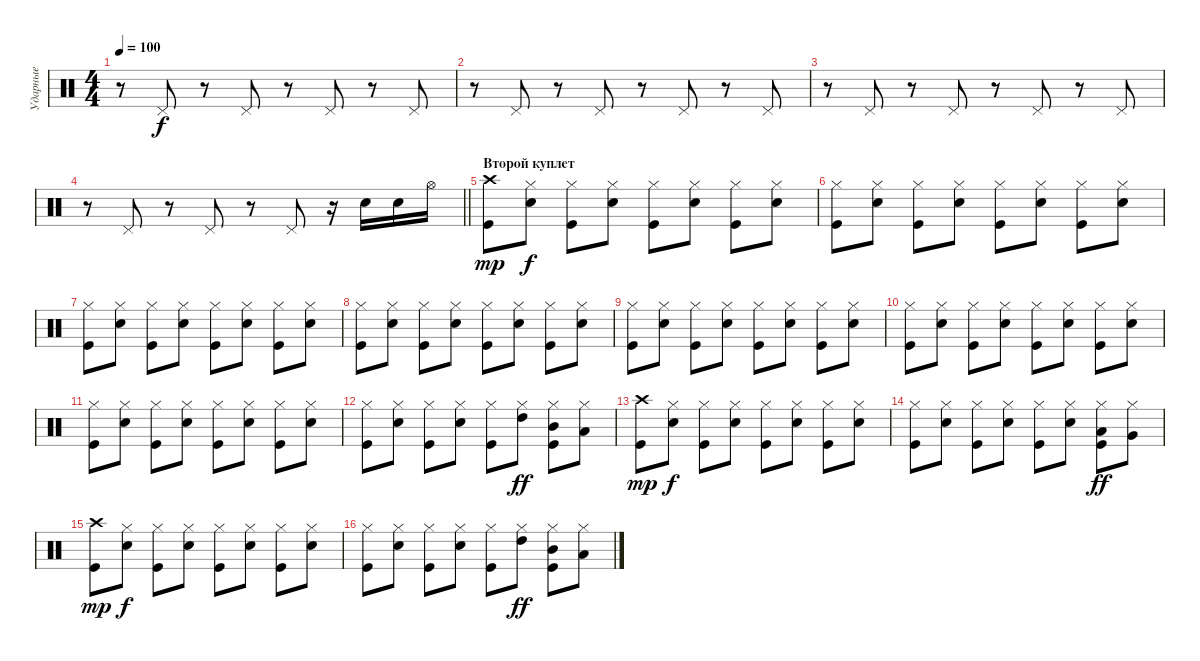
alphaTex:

\track ("Ударные" "Ударные") {instrument percussion}
\staff {score}
\articulation defaults
\ts (4 4)
\tempo 100
\clef neutral
\ks c
r.8{dy f} "Pedal Hi-Hat (hit)".8 r.8 "Pedal Hi-Hat (hit)".8 r.8 "Pedal Hi-Hat (hit)".8 r.8 "Pedal Hi-Hat (hit)".8 |
r.8 "Pedal Hi-Hat (hit)".8 r.8 "Pedal Hi-Hat (hit)".8 r.8 "Pedal Hi-Hat (hit)".8 r.8 "Pedal Hi-Hat (hit)".8 |
r.8 "Pedal Hi-Hat (hit)".8 r.8 "Pedal Hi-Hat (hit)".8 r.8 "Pedal Hi-Hat (hit)".8 r.8 "Pedal Hi-Hat (hit)".8 |
\barLineRight lightlight
r.8 "Pedal Hi-Hat (hit)".8 r.8 "Pedal Hi-Hat (hit)".8 r.8 "Pedal Hi-Hat (hit)".8 r.16 "Snare (hit) 2".16 "Snare (hit) 2".16 "Hi-Hat (open)".16 |
\section ("" "Второй куплет")
("Kick (hit)" "Crash high (hit)").8{dy mp} ("Hi-Hat (closed)" "Snare (hit) 2").8{dy f} ("Hi-Hat (closed)" "Kick (hit)").8 ("Hi-Hat (closed)" "Snare (hit) 2").8 ("Hi-Hat (closed)" "Kick (hit)").8 ("Hi-Hat (closed)" "Snare (hit) 2").8 ("Hi-Hat (closed)" "Kick (hit)").8 ("Hi-Hat (closed)" "Snare (hit) 2").8 |
("Hi-Hat (closed)" "Kick (hit)").8 ("Hi-Hat (closed)" "Snare (hit) 2").8 ("Hi-Hat (closed)" "Kick (hit)").8 ("Hi-Hat (closed)" "Snare (hit) 2").8 ("Hi-Hat (closed)" "Kick (hit)").8 ("Hi-Hat (closed)" "Snare (hit) 2").8 ("Hi-Hat (closed)" "Kick (hit)").8 ("Hi-Hat (closed)" "Snare (hit) 2").8 |
("Hi-Hat (closed)" "Kick (hit)").8 ("Hi-Hat (closed)" "Snare (hit) 2").8 ("Hi-Hat (closed)" "Kick (hit)").8 ("Hi-Hat (closed)" "Snare (hit) 2").8 ("Hi-Hat (closed)" "Kick (hit)").8 ("Hi-Hat (closed)" "Snare (hit) 2").8 ("Hi-Hat (closed)" "Kick (hit)").8 ("Hi-Hat (closed)" "Snare (hit) 2").8 |
("Hi-Hat (closed)" "Kick (hit)").8 ("Hi-Hat (closed)" "Snare (hit) 2").8 ("Hi-Hat (closed)" "Kick (hit)").8 ("Hi-Hat (closed)" "Snare (hit) 2").8 ("Hi-Hat (closed)" "Kick (hit)").8 ("Hi-Hat (closed)" "Snare (hit) 2").8 ("Hi-Hat (closed)" "Kick (hit)").8 ("Hi-Hat (closed)" "Snare (hit) 2").8 |
("Hi-Hat (closed)" "Kick (hit)").8 ("Hi-Hat (closed)" "Snare (hit) 2").8 ("Hi-Hat (closed)" "Kick (hit)").8 ("Hi-Hat (closed)" "Snare (hit) 2").8 ("Hi-Hat (closed)" "Kick (hit)").8 ("Hi-Hat (closed)" "Snare (hit) 2").8 ("Hi-Hat (closed)" "Kick (hit)").8 ("Hi-Hat (closed)" "Snare (hit) 2").8 |
("Hi-Hat (closed)" "Kick (hit)").8 ("Hi-Hat (closed)" "Snare (hit) 2").8 ("Hi-Hat (closed)" "Kick (hit)").8 ("Hi-Hat (closed)" "Snare (hit) 2").8 ("Hi-Hat (closed)" "Kick (hit)").8 ("Hi-Hat (closed)" "Snare (hit) 2").8 ("Hi-Hat (closed)" "Kick (hit)").8 ("Hi-Hat (closed)" "Snare (hit) 2").8 |
("Hi-Hat (closed)" "Kick (hit)").8 ("Hi-Hat (closed)" "Snare (hit) 2").8 ("Hi-Hat (closed)" "Kick (hit)").8 ("Hi-Hat (closed)" "Snare (hit) 2").8 ("Hi-Hat (closed)" "Kick (hit)").8 ("Hi-Hat (closed)" "Snare (hit) 2").8 ("Hi-Hat (closed)" "Kick (hit)").8 ("Hi-Hat (closed)" "Snare (hit) 2").8 |
("Hi-Hat (closed)" "Kick (hit)").8 ("Hi-Hat (closed)" "Snare (hit) 2").8 ("Hi-Hat (closed)" "Kick (hit)").8 ("Hi-Hat (closed)" "Snare (hit) 2").8 ("Hi-Hat (closed)" "Kick (hit)").8 ("Hi-Hat (closed)" "High Tom (hit)").8{dy ff} ("Hi-Hat (closed)" "Kick (hit)" "Mid Tom (hit)").8 ("Hi-Hat (closed)" "Low Tom (hit)").8 |
("Kick (hit)" "Crash high (hit)").8{dy mp} ("Hi-Hat (closed)" "Snare (hit) 2").8{dy f} ("Hi-Hat (closed)" "Kick (hit)").8 ("Hi-Hat (closed)" "Snare (hit) 2").8 ("Hi-Hat (closed)" "Kick (hit)").8 ("Hi-Hat (closed)" "Snare (hit) 2").8 ("Hi-Hat (closed)" "Kick (hit)").8 ("Hi-Hat (closed)" "Snare (hit) 2").8 |
("Hi-Hat (closed)" "Kick (hit)").8 ("Hi-Hat (closed)" "Snare (hit) 2").8 ("Hi-Hat (closed)" "Kick (hit)").8 ("Hi-Hat (closed)" "Snare (hit) 2").8 ("Hi-Hat (closed)" "Kick (hit)").8 ("Hi-Hat (closed)" "Snare (hit) 2").8 ("Hi-Hat (closed)" "Kick (hit)" "Low Tom (hit)").8{dy ff} ("Hi-Hat (closed)" "Very Low Tom (hit)").8 |
("Kick (hit)" "Crash high (hit)").8{dy mp} ("Hi-Hat (closed)" "Snare (hit) 2").8{dy f} ("Hi-Hat (closed)" "Kick (hit)").8 ("Hi-Hat (closed)" "Snare (hit) 2").8 ("Hi-Hat (closed)" "Kick (hit)").8 ("Hi-Hat (closed)" "Snare (hit) 2").8 ("Hi-Hat (closed)" "Kick (hit)").8 ("Hi-Hat (closed)" "Snare (hit) 2").8 |
("Hi-Hat (closed)" "Kick (hit)").8 ("Hi-Hat (closed)" "Snare (hit) 2").8 ("Hi-Hat (closed)" "Kick (hit)").8 ("Hi-Hat (closed)" "Snare (hit) 2").8 ("Hi-Hat (closed)" "Kick (hit)").8 ("Hi-Hat (closed)" "High Tom (hit)").8{dy ff} ("Hi-Hat (closed)" "Kick (hit)" "Mid Tom (hit)").8 ("Hi-Hat (closed)" "Low Tom (hit)").8
